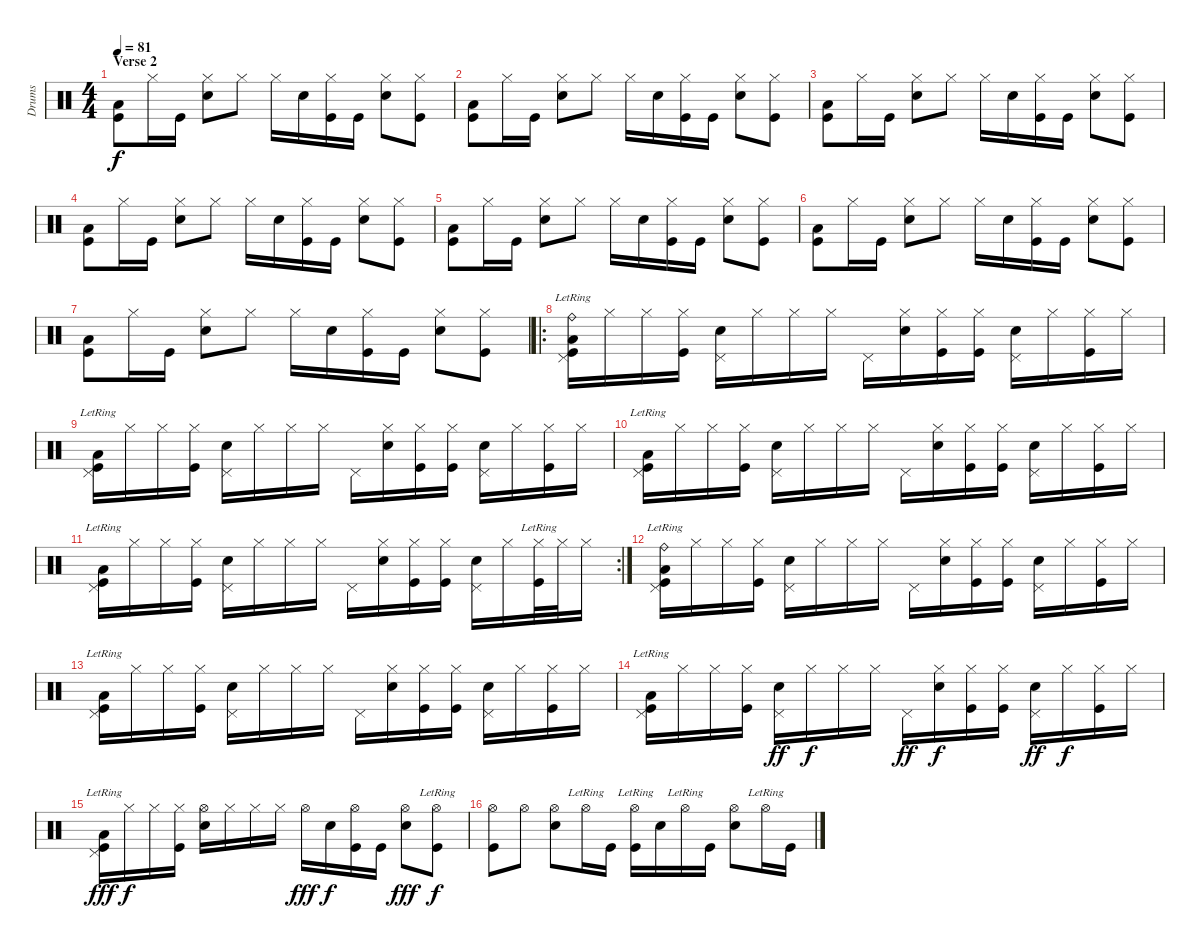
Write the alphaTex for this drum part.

\track ("Drums" "Drums") {instrument percussion}
\staff {score}
\articulation defaults
\ts (4 4)
\section ("" "Verse 2")
\tempo 81
\clef neutral
\ks c
("Low Floor Tom (hit)" "Kick (hit)").8{dy f} "Hi-Hat (closed)".16 "Kick (hit)".16 ("Hi-Hat (closed)" "Electric Snare (hit)").8 "Hi-Hat (closed)".8 "Hi-Hat (closed)".16 "Electric Snare (hit)".16 ("Hi-Hat (closed)" "Kick (hit)").16 "Kick (hit)".16 ("Hi-Hat (closed)" "Electric Snare (hit)").8 ("Hi-Hat (closed)" "Kick (hit)").8 |
("Low Floor Tom (hit)" "Kick (hit)").8 "Hi-Hat (closed)".16 "Kick (hit)".16 ("Hi-Hat (closed)" "Electric Snare (hit)").8 "Hi-Hat (closed)".8 "Hi-Hat (closed)".16 "Electric Snare (hit)".16 ("Hi-Hat (closed)" "Kick (hit)").16 "Kick (hit)".16 ("Hi-Hat (closed)" "Electric Snare (hit)").8 ("Hi-Hat (closed)" "Kick (hit)").8 |
("Low Floor Tom (hit)" "Kick (hit)").8 "Hi-Hat (closed)".16 "Kick (hit)".16 ("Hi-Hat (closed)" "Electric Snare (hit)").8 "Hi-Hat (closed)".8 "Hi-Hat (closed)".16 "Electric Snare (hit)".16 ("Hi-Hat (closed)" "Kick (hit)").16 "Kick (hit)".16 ("Hi-Hat (closed)" "Electric Snare (hit)").8 ("Hi-Hat (closed)" "Kick (hit)").8 |
("Low Floor Tom (hit)" "Kick (hit)").8 "Hi-Hat (closed)".16 "Kick (hit)".16 ("Hi-Hat (closed)" "Electric Snare (hit)").8 "Hi-Hat (closed)".8 "Hi-Hat (closed)".16 "Electric Snare (hit)".16 ("Hi-Hat (closed)" "Kick (hit)").16 "Kick (hit)".16 ("Hi-Hat (closed)" "Electric Snare (hit)").8 ("Hi-Hat (closed)" "Kick (hit)").8 |
("Low Floor Tom (hit)" "Kick (hit)").8 "Hi-Hat (closed)".16 "Kick (hit)".16 ("Hi-Hat (closed)" "Electric Snare (hit)").8 "Hi-Hat (closed)".8 "Hi-Hat (closed)".16 "Electric Snare (hit)".16 ("Hi-Hat (closed)" "Kick (hit)").16 "Kick (hit)".16 ("Hi-Hat (closed)" "Electric Snare (hit)").8 ("Hi-Hat (closed)" "Kick (hit)").8 |
("Low Floor Tom (hit)" "Kick (hit)").8 "Hi-Hat (closed)".16 "Kick (hit)".16 ("Hi-Hat (closed)" "Electric Snare (hit)").8 "Hi-Hat (closed)".8 "Hi-Hat (closed)".16 "Electric Snare (hit)".16 ("Hi-Hat (closed)" "Kick (hit)").16 "Kick (hit)".16 ("Hi-Hat (closed)" "Electric Snare (hit)").8 ("Hi-Hat (closed)" "Kick (hit)").8 |
("Low Floor Tom (hit)" "Kick (hit)").8 "Hi-Hat (closed)".16 "Kick (hit)".16 ("Hi-Hat (closed)" "Electric Snare (hit)").8 "Hi-Hat (closed)".8 "Hi-Hat (closed)".16 "Electric Snare (hit)".16 ("Hi-Hat (closed)" "Kick (hit)").16 "Kick (hit)".16 ("Hi-Hat (closed)" "Electric Snare (hit)").8 ("Hi-Hat (closed)" "Kick (hit)").8 |
\ro
("Pedal Hi-Hat (hit)" "Ride (bell)" "Low Floor Tom (hit)"{lr} "Kick (hit)").16 "Hi-Hat (closed)".16 "Hi-Hat (closed)".16 ("Hi-Hat (closed)" "Kick (hit)").16 ("Pedal Hi-Hat (hit)" "Electric Snare (hit)").16 "Hi-Hat (closed)".16 "Hi-Hat (closed)".16 "Hi-Hat (closed)".16 "Pedal Hi-Hat (hit)".16 ("Hi-Hat (closed)" "Electric Snare (hit)").16 ("Hi-Hat (closed)" "Kick (hit)").16 ("Hi-Hat (closed)" "Kick (hit)").16 ("Pedal Hi-Hat (hit)" "Electric Snare (hit)").16 "Hi-Hat (closed)".16 ("Hi-Hat (closed)" "Kick (hit)").16 "Hi-Hat (closed)".16 |
("Pedal Hi-Hat (hit)" "Low Floor Tom (hit)"{lr} "Kick (hit)").16 "Hi-Hat (closed)".16 "Hi-Hat (closed)".16 ("Hi-Hat (closed)" "Kick (hit)").16 ("Pedal Hi-Hat (hit)" "Electric Snare (hit)").16 "Hi-Hat (closed)".16 "Hi-Hat (closed)".16 "Hi-Hat (closed)".16 "Pedal Hi-Hat (hit)".16 ("Hi-Hat (closed)" "Electric Snare (hit)").16 ("Hi-Hat (closed)" "Kick (hit)").16 ("Hi-Hat (closed)" "Kick (hit)").16 ("Pedal Hi-Hat (hit)" "Electric Snare (hit)").16 "Hi-Hat (closed)".16 ("Hi-Hat (closed)" "Kick (hit)").16 "Hi-Hat (closed)".16 |
("Pedal Hi-Hat (hit)" "Low Floor Tom (hit)"{lr} "Kick (hit)").16 "Hi-Hat (closed)".16 "Hi-Hat (closed)".16 ("Hi-Hat (closed)" "Kick (hit)").16 ("Pedal Hi-Hat (hit)" "Electric Snare (hit)").16 "Hi-Hat (closed)".16 "Hi-Hat (closed)".16 "Hi-Hat (closed)".16 "Pedal Hi-Hat (hit)".16 ("Hi-Hat (closed)" "Electric Snare (hit)").16 ("Hi-Hat (closed)" "Kick (hit)").16 ("Hi-Hat (closed)" "Kick (hit)").16 ("Pedal Hi-Hat (hit)" "Electric Snare (hit)").16 "Hi-Hat (closed)".16 ("Hi-Hat (closed)" "Kick (hit)").16 "Hi-Hat (closed)".16 |
\rc 2
("Pedal Hi-Hat (hit)" "Low Floor Tom (hit)"{lr} "Kick (hit)").16 "Hi-Hat (closed)".16 "Hi-Hat (closed)".16 ("Hi-Hat (closed)" "Kick (hit)").16 ("Pedal Hi-Hat (hit)" "Electric Snare (hit)").16 "Hi-Hat (closed)".16 "Hi-Hat (closed)".16 "Hi-Hat (closed)".16 "Pedal Hi-Hat (hit)".16 ("Hi-Hat (closed)" "Electric Snare (hit)").16 ("Hi-Hat (closed)" "Kick (hit)").16 ("Hi-Hat (closed)" "Kick (hit)").16 ("Pedal Hi-Hat (hit)" "Electric Snare (hit)").16 "Hi-Hat (closed)".16 ("Hi-Hat (closed)" "Kick (hit)"{lr}).32 "Hi-Hat (closed)".32 "Hi-Hat (closed)".16 |
("Pedal Hi-Hat (hit)" "Ride (bell)" "Low Floor Tom (hit)"{lr} "Kick (hit)").16 "Hi-Hat (closed)".16 "Hi-Hat (closed)".16 ("Hi-Hat (closed)" "Kick (hit)").16 ("Pedal Hi-Hat (hit)" "Electric Snare (hit)").16 "Hi-Hat (closed)".16 "Hi-Hat (closed)".16 "Hi-Hat (closed)".16 "Pedal Hi-Hat (hit)".16 ("Hi-Hat (closed)" "Electric Snare (hit)").16 ("Hi-Hat (closed)" "Kick (hit)").16 ("Hi-Hat (closed)" "Kick (hit)").16 ("Pedal Hi-Hat (hit)" "Electric Snare (hit)").16 "Hi-Hat (closed)".16 ("Hi-Hat (closed)" "Kick (hit)").16 "Hi-Hat (closed)".16 |
("Pedal Hi-Hat (hit)" "Low Floor Tom (hit)"{lr} "Kick (hit)").16 "Hi-Hat (closed)".16 "Hi-Hat (closed)".16 ("Hi-Hat (closed)" "Kick (hit)").16 ("Pedal Hi-Hat (hit)" "Electric Snare (hit)").16 "Hi-Hat (closed)".16 "Hi-Hat (closed)".16 "Hi-Hat (closed)".16 "Pedal Hi-Hat (hit)".16 ("Hi-Hat (closed)" "Electric Snare (hit)").16 ("Hi-Hat (closed)" "Kick (hit)").16 ("Hi-Hat (closed)" "Kick (hit)").16 ("Pedal Hi-Hat (hit)" "Electric Snare (hit)").16 "Hi-Hat (closed)".16 ("Hi-Hat (closed)" "Kick (hit)").16 "Hi-Hat (closed)".16 |
("Pedal Hi-Hat (hit)" "Low Floor Tom (hit)"{lr} "Kick (hit)").16 "Hi-Hat (closed)".16 "Hi-Hat (closed)".16 ("Hi-Hat (closed)" "Kick (hit)").16 ("Pedal Hi-Hat (hit)" "Electric Snare (hit)").16{dy ff} "Hi-Hat (closed)".16{dy f} "Hi-Hat (closed)".16 "Hi-Hat (closed)".16 "Pedal Hi-Hat (hit)".16{dy ff} ("Hi-Hat (closed)" "Electric Snare (hit)").16{dy f} ("Hi-Hat (closed)" "Kick (hit)").16 ("Hi-Hat (closed)" "Kick (hit)").16 ("Pedal Hi-Hat (hit)" "Electric Snare (hit)").16{dy ff} "Hi-Hat (closed)".16{dy f} ("Hi-Hat (closed)" "Kick (hit)").16 "Hi-Hat (closed)".16 |
("Pedal Hi-Hat (hit)" "Low Floor Tom (hit)"{lr} "Kick (hit)").16{dy fff} "Hi-Hat (closed)".16{dy f} "Hi-Hat (closed)".16 ("Hi-Hat (closed)" "Kick (hit)").16 ("Hi-Hat (open)" "Electric Snare (hit)").16 "Hi-Hat (closed)".16 "Hi-Hat (closed)".16 "Hi-Hat (closed)".16 "Hi-Hat (open)".16{dy fff} "Electric Snare (hit)".16{dy f} ("Hi-Hat (open)" "Kick (hit)").16 "Kick (hit)".16 ("Hi-Hat (open)" "Electric Snare (hit)").8{dy fff} ("Hi-Hat (open)" "Kick (hit)"{lr}).8{dy f} |
("Hi-Hat (open)" "Kick (hit)").8 "Hi-Hat (open)".8 ("Hi-Hat (open)" "Snare (hit) 2").8 "Hi-Hat (open)"{lr}.16 "Kick (hit)".16 ("Hi-Hat (open)"{lr} "Kick (hit)").16 "Snare (hit) 2".16 "Hi-Hat (open)"{lr}.16 "Kick (hit)".16 ("Hi-Hat (open)" "Snare (hit) 2").8 "Hi-Hat (open)"{lr}.16 "Kick (hit)".16
